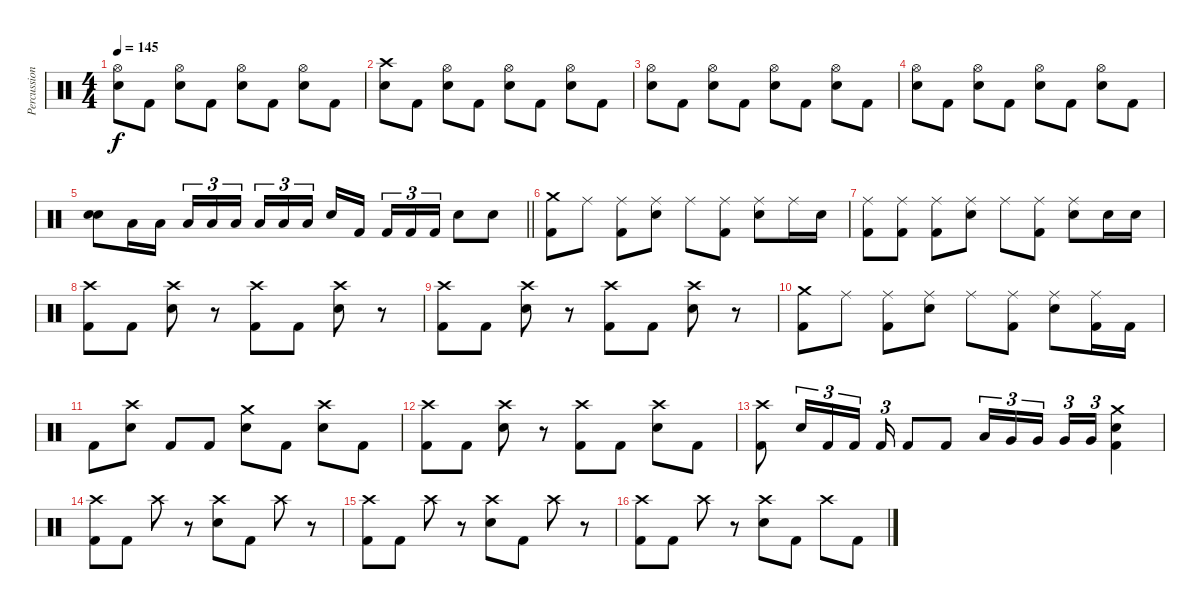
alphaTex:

\track ("Percussion" "Percussion") {instrument percussion}
\staff {score}
\articulation defaults
\ts (4 4)
\tempo 145
\clef neutral
\ks c
("Hi-Hat (open)" "Snare (hit) 2").8{dy f} "Kick (hit) 2".8 ("Hi-Hat (open)" "Snare (hit) 2").8 "Kick (hit) 2".8 ("Hi-Hat (open)" "Snare (hit) 2").8 "Kick (hit) 2".8 ("Hi-Hat (open)" "Snare (hit) 2").8 "Kick (hit) 2".8 |
("Crash high (hit)" "Snare (hit) 2").8 "Kick (hit) 2".8 ("Hi-Hat (open)" "Snare (hit) 2").8 "Kick (hit) 2".8 ("Hi-Hat (open)" "Snare (hit) 2").8 "Kick (hit) 2".8 ("Hi-Hat (open)" "Snare (hit) 2").8 "Kick (hit) 2".8 |
("Hi-Hat (open)" "Snare (hit) 2").8 "Kick (hit) 2".8 ("Hi-Hat (open)" "Snare (hit) 2").8 "Kick (hit) 2".8 ("Hi-Hat (open)" "Snare (hit) 2").8 "Kick (hit) 2".8 ("Hi-Hat (open)" "Snare (hit) 2").8 "Kick (hit) 2".8 |
("Hi-Hat (open)" "Snare (hit) 2").8 "Kick (hit) 2".8 ("Hi-Hat (open)" "Snare (hit) 2").8 "Kick (hit) 2".8 ("Hi-Hat (open)" "Snare (hit) 2").8 "Kick (hit) 2".8 ("Hi-Hat (open)" "Snare (hit) 2").8 "Kick (hit) 2".8 |
\barLineRight lightlight
("Snare (hit) 2" "Snare (hit) 2").8 "Low Tom (hit)".16 "Low Tom (hit)".16 "Low Tom (hit)".16{tu (3 2)} "Low Tom (hit)".16{tu (3 2)} "Low Tom (hit)".16{tu (3 2) beam splitsecondary} "Low Tom (hit)".16{tu (3 2)} "Low Tom (hit)".16{tu (3 2)} "Low Tom (hit)".16{tu (3 2)} "Snare (hit) 2".16 "Kick (hit) 2".16{beam splitsecondary} "Kick (hit) 2".16{tu (3 2)} "Kick (hit) 2".16{tu (3 2)} "Kick (hit) 2".16{tu (3 2)} "Snare (hit) 2".8 "Snare (hit) 2".8 |
("Crash medium (hit)" "Kick (hit) 2").8 "Ride (middle)".8 ("Ride (middle)" "Kick (hit) 2").8 ("Ride (middle)" "Snare (hit) 2").8 "Ride (middle)".8 ("Ride (middle)" "Kick (hit) 2").8 ("Ride (middle)" "Snare (hit) 2").8 "Ride (middle)".16 "Snare (hit) 2".16 |
("Ride (middle)" "Kick (hit) 2").8 ("Ride (middle)" "Kick (hit) 2").8 ("Ride (middle)" "Kick (hit) 2").8 ("Ride (middle)" "Snare (hit) 2").8 "Ride (middle)".8 ("Ride (middle)" "Kick (hit) 2").8 ("Ride (middle)" "Snare (hit) 2").8 "Snare (hit) 2".16 "Snare (hit) 2".16 |
("Crash high (hit)" "Kick (hit) 2").8 "Kick (hit) 2".8 ("Crash high (hit)" "Snare (hit) 2").8 r.8 ("Crash high (hit)" "Kick (hit) 2").8 "Kick (hit) 2".8 ("Crash high (hit)" "Snare (hit) 2").8 r.8 |
("Crash high (hit)" "Kick (hit) 2").8 "Kick (hit) 2".8 ("Crash high (hit)" "Snare (hit) 2").8 r.8 ("Crash high (hit)" "Kick (hit) 2").8 "Kick (hit) 2".8 ("Crash high (hit)" "Snare (hit) 2").8 r.8 |
("Crash medium (hit)" "Kick (hit) 2").8 "Ride (middle)".8 ("Ride (middle)" "Kick (hit) 2").8 ("Ride (middle)" "Snare (hit) 2").8 "Ride (middle)".8 ("Ride (middle)" "Kick (hit) 2").8 ("Ride (middle)" "Snare (hit) 2").8 ("Ride (middle)" "Kick (hit) 2").16 "Kick (hit) 2".16 |
"Kick (hit) 2".8 ("Crash high (hit)" "Snare (hit) 2").8 "Kick (hit) 2".8 "Kick (hit) 2".8 ("Crash medium (hit)" "Snare (hit) 2").8 "Kick (hit) 2".8 ("Crash high (hit)" "Snare (hit) 2").8 "Kick (hit) 2".8 |
("Crash high (hit)" "Kick (hit) 2").8 "Kick (hit) 2".8 ("Crash high (hit)" "Snare (hit) 2").8 r.8 ("Crash high (hit)" "Kick (hit) 2").8 "Kick (hit) 2".8 ("Crash high (hit)" "Snare (hit) 2").8 "Kick (hit) 2".8 |
("Crash high (hit)" "Kick (hit) 2").8 "Snare (hit) 2".16{tu (3 2)} "Kick (hit) 2".16{tu (3 2)} "Kick (hit) 2".16{tu (3 2)} "Kick (hit) 2".16{tu (3 2)} "Kick (hit) 2".8 "Kick (hit) 2".8 "Low Tom (hit)".16{tu (3 2)} "Very Low Tom (hit)".16{tu (3 2)} "Very Low Tom (hit)".16{tu (3 2) beam splitsecondary} "Very Low Tom (hit)".16{tu (3 2)} "Very Low Tom (hit)".16{tu (3 2)} ("Crash medium (hit)" "Snare (hit) 2" "Kick (hit) 2").4 |
("Crash high (hit)" "Kick (hit) 2").8 "Kick (hit) 2".8 "Crash high (hit)".8 r.8 ("Crash high (hit)" "Snare (hit) 2").8 "Kick (hit) 2".8 "Crash high (hit)".8 r.8 |
("Crash high (hit)" "Kick (hit) 2").8 "Kick (hit) 2".8 "Crash high (hit)".8 r.8 ("Crash high (hit)" "Snare (hit) 2").8 "Kick (hit) 2".8 "Crash high (hit)".8 r.8 |
("Crash high (hit)" "Kick (hit) 2").8 "Kick (hit) 2".8 "Crash high (hit)".8 r.8 ("Crash high (hit)" "Snare (hit) 2").8 "Kick (hit) 2".8 "Crash high (hit)".8 "Kick (hit) 2".8
